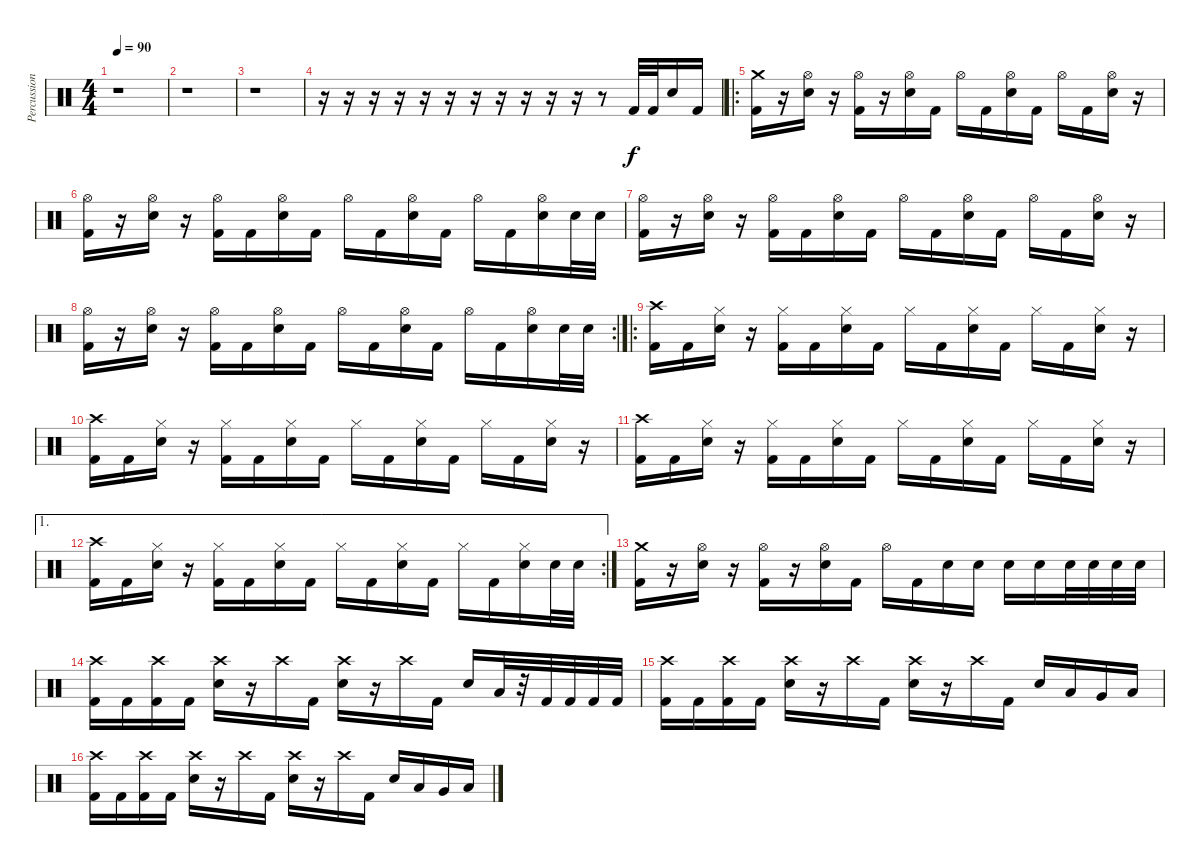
\track ("Percussion" "Percussion") {instrument percussion}
\staff {score}
\articulation defaults
\ts (4 4)
\tempo 90
\clef neutral
\ks c
r.1{dy f} |
r.1 |
r.1 |
r.16 r.16 r.16 r.16 r.16 r.16 r.16 r.16 r.16 r.16 r.16 r.8 "Kick (hit) 2".32 "Kick (hit) 2".32 "Snare (hit) 2".16 "Kick (hit) 2".16 |
\ro
("Kick (hit) 2" "Crash medium (hit)").16 r.16 ("Snare (hit) 2" "Hi-Hat (open)").16 r.16 ("Kick (hit) 2" "Hi-Hat (open)").16 r.16 ("Snare (hit) 2" "Hi-Hat (open)").16 "Kick (hit) 2".16 "Hi-Hat (open)".16 "Kick (hit) 2".16 ("Snare (hit) 2" "Hi-Hat (open)").16 "Kick (hit) 2".16 "Hi-Hat (open)".16 "Kick (hit) 2".16 ("Snare (hit) 2" "Hi-Hat (open)").16 r.16 |
("Kick (hit) 2" "Hi-Hat (open)").16 r.16 ("Snare (hit) 2" "Hi-Hat (open)").16 r.16 ("Kick (hit) 2" "Hi-Hat (open)").16 "Kick (hit) 2".16 ("Snare (hit) 2" "Hi-Hat (open)").16 "Kick (hit) 2".16 "Hi-Hat (open)".16 "Kick (hit) 2".16 ("Snare (hit) 2" "Hi-Hat (open)").16 "Kick (hit) 2".16 "Hi-Hat (open)".16 "Kick (hit) 2".16 ("Snare (hit) 2" "Hi-Hat (open)").16 "Snare (hit) 2".32 "Snare (hit) 2".32 |
("Kick (hit) 2" "Hi-Hat (open)").16 r.16 ("Snare (hit) 2" "Hi-Hat (open)").16 r.16 ("Kick (hit) 2" "Hi-Hat (open)").16 "Kick (hit) 2".16 ("Snare (hit) 2" "Hi-Hat (open)").16 "Kick (hit) 2".16 "Hi-Hat (open)".16 "Kick (hit) 2".16 ("Snare (hit) 2" "Hi-Hat (open)").16 "Kick (hit) 2".16 "Hi-Hat (open)".16 "Kick (hit) 2".16 ("Snare (hit) 2" "Hi-Hat (open)").16 r.16 |
\rc 2
("Kick (hit) 2" "Hi-Hat (open)").16 r.16 ("Snare (hit) 2" "Hi-Hat (open)").16 r.16 ("Kick (hit) 2" "Hi-Hat (open)").16 "Kick (hit) 2".16 ("Snare (hit) 2" "Hi-Hat (open)").16 "Kick (hit) 2".16 "Hi-Hat (open)".16 "Kick (hit) 2".16 ("Snare (hit) 2" "Hi-Hat (open)").16 "Kick (hit) 2".16 "Hi-Hat (open)".16 "Kick (hit) 2".16 ("Snare (hit) 2" "Hi-Hat (open)").16 "Snare (hit) 2".32 "Snare (hit) 2".32 |
\ro
("Kick (hit) 2" "Crash high (hit)").16 "Kick (hit) 2".16 ("Snare (hit) 2" "Hi-Hat (closed)").16 r.16 ("Kick (hit) 2" "Hi-Hat (closed)").16 "Kick (hit) 2".16 ("Snare (hit) 2" "Hi-Hat (closed)").16 "Kick (hit) 2".16 "Hi-Hat (closed)".16 "Kick (hit) 2".16 ("Snare (hit) 2" "Hi-Hat (closed)").16 "Kick (hit) 2".16 "Hi-Hat (closed)".16 "Kick (hit) 2".16 ("Snare (hit) 2" "Hi-Hat (closed)").16 r.16 |
("Kick (hit) 2" "Crash high (hit)").16 "Kick (hit) 2".16 ("Snare (hit) 2" "Hi-Hat (closed)").16 r.16 ("Kick (hit) 2" "Hi-Hat (closed)").16 "Kick (hit) 2".16 ("Snare (hit) 2" "Hi-Hat (closed)").16 "Kick (hit) 2".16 "Hi-Hat (closed)".16 "Kick (hit) 2".16 ("Snare (hit) 2" "Hi-Hat (closed)").16 "Kick (hit) 2".16 "Hi-Hat (closed)".16 "Kick (hit) 2".16 ("Snare (hit) 2" "Hi-Hat (closed)").16 r.16 |
("Kick (hit) 2" "Crash high (hit)").16 "Kick (hit) 2".16 ("Snare (hit) 2" "Hi-Hat (closed)").16 r.16 ("Kick (hit) 2" "Hi-Hat (closed)").16 "Kick (hit) 2".16 ("Snare (hit) 2" "Hi-Hat (closed)").16 "Kick (hit) 2".16 "Hi-Hat (closed)".16 "Kick (hit) 2".16 ("Snare (hit) 2" "Hi-Hat (closed)").16 "Kick (hit) 2".16 "Hi-Hat (closed)".16 "Kick (hit) 2".16 ("Snare (hit) 2" "Hi-Hat (closed)").16 r.16 |
\ae 1
\rc 2
("Kick (hit) 2" "Crash high (hit)").16 "Kick (hit) 2".16 ("Snare (hit) 2" "Hi-Hat (closed)").16 r.16 ("Kick (hit) 2" "Hi-Hat (closed)").16 "Kick (hit) 2".16 ("Snare (hit) 2" "Hi-Hat (closed)").16 "Kick (hit) 2".16 "Hi-Hat (closed)".16 "Kick (hit) 2".16 ("Snare (hit) 2" "Hi-Hat (closed)").16 "Kick (hit) 2".16 "Hi-Hat (closed)".16 "Kick (hit) 2".16 ("Snare (hit) 2" "Hi-Hat (closed)").16 "Snare (hit) 2".32 "Snare (hit) 2".32 |
("Kick (hit) 2" "Crash medium (hit)").16 r.16 ("Snare (hit) 2" "Hi-Hat (open)").16 r.16 ("Kick (hit) 2" "Hi-Hat (open)").16 r.16 ("Snare (hit) 2" "Hi-Hat (open)").16 "Kick (hit) 2".16 "Hi-Hat (open)".16 "Kick (hit) 2".16 "Snare (hit) 2".16 "Snare (hit) 2".16 "Snare (hit) 2".16 "Snare (hit) 2".16 "Snare (hit) 2".32 "Snare (hit) 2".32 "Snare (hit) 2".32 "Snare (hit) 2".32 |
("Kick (hit) 2" "Crash high (hit)").16 "Kick (hit) 2".16 ("Kick (hit) 2" "Crash high (hit)").16 "Kick (hit) 2".16 ("Snare (hit) 2" "Crash high (hit)").16 r.16 "Crash high (hit)".16 "Kick (hit) 2".16 ("Snare (hit) 2" "Crash high (hit)").16 r.16 "Crash high (hit)".16 "Kick (hit) 2".16 "Snare (hit) 2".16 "Low Tom (hit)".32 r.32 "Kick (hit) 2".32 "Kick (hit) 2".32 "Kick (hit) 2".32 "Kick (hit) 2".32 |
("Kick (hit) 2" "Crash high (hit)").16 "Kick (hit) 2".16 ("Kick (hit) 2" "Crash high (hit)").16 "Kick (hit) 2".16 ("Snare (hit) 2" "Crash high (hit)").16 r.16 "Crash high (hit)".16 "Kick (hit) 2".16 ("Snare (hit) 2" "Crash high (hit)").16 r.16 "Crash high (hit)".16 "Kick (hit) 2".16 "Snare (hit) 2".16 "Low Tom (hit)".16 "Very Low Tom (hit)".16 "Low Floor Tom (hit)".16 |
("Kick (hit) 2" "Crash high (hit)").16 "Kick (hit) 2".16 ("Kick (hit) 2" "Crash high (hit)").16 "Kick (hit) 2".16 ("Snare (hit) 2" "Crash high (hit)").16 r.16 "Crash high (hit)".16 "Kick (hit) 2".16 ("Snare (hit) 2" "Crash high (hit)").16 r.16 "Crash high (hit)".16 "Kick (hit) 2".16 "Snare (hit) 2".16 "Low Tom (hit)".16 "Very Low Tom (hit)".16 "Low Floor Tom (hit)".16
